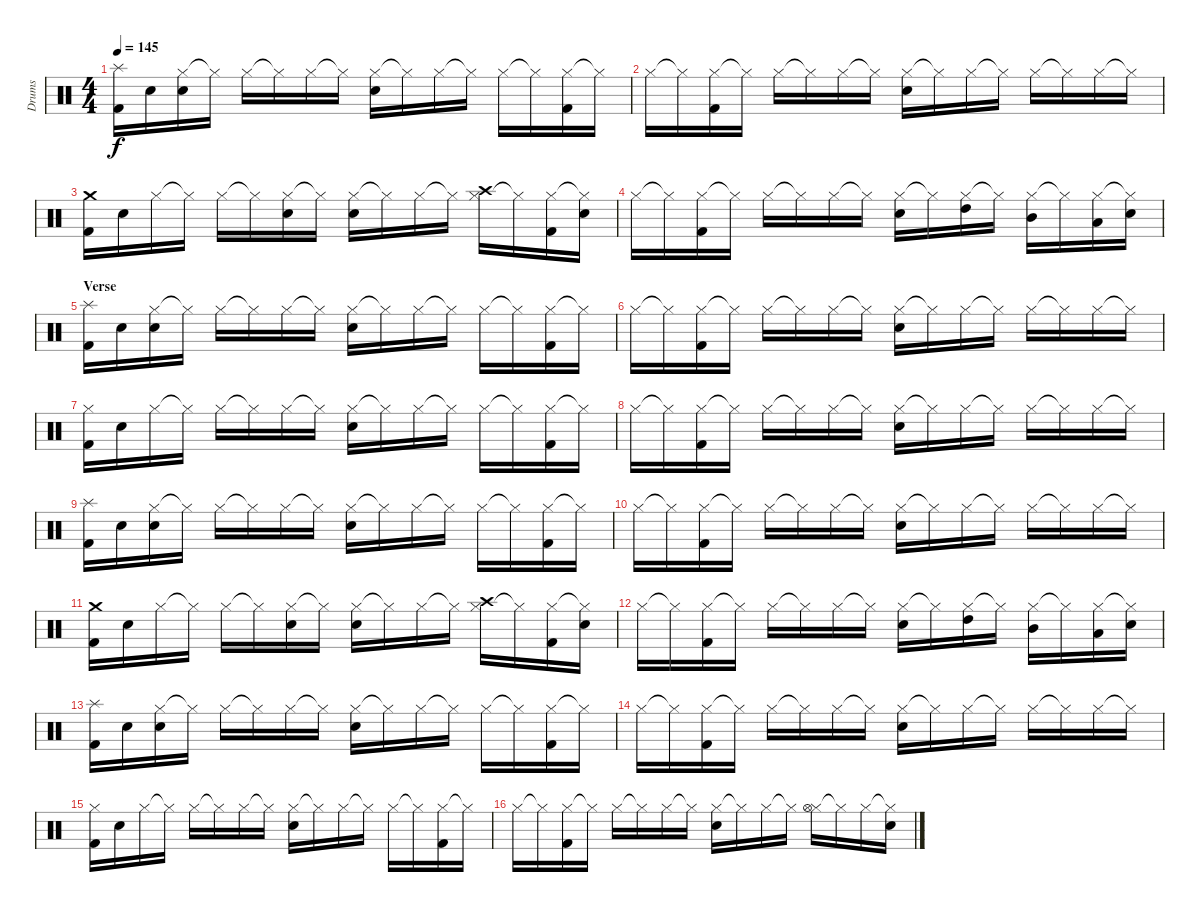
\track ("Drums" "Drums") {instrument percussion}
\staff {score}
\articulation defaults
\ts (4 4)
\tempo 145
\clef neutral
\ks c
("Splash (hit)" "Kick (hit) 2").16{dy f} "Snare (hit)".16 ("Hi-Hat (closed)" "Snare (hit)").16 "Hi-Hat (closed)"{t}.16 "Hi-Hat (closed)".16 "Hi-Hat (closed)"{t}.16 "Hi-Hat (closed)".16 "Hi-Hat (closed)"{t}.16 ("Hi-Hat (closed)" "Snare (hit) 2").16 "Hi-Hat (closed)"{t}.16 "Hi-Hat (closed)".16 "Hi-Hat (closed)"{t}.16 "Hi-Hat (closed)".16 "Hi-Hat (closed)"{t}.16 ("Hi-Hat (closed)" "Kick (hit) 2").16 "Hi-Hat (closed)"{t}.16 |
"Hi-Hat (closed)".16 "Hi-Hat (closed)"{t}.16 ("Hi-Hat (closed)" "Kick (hit) 2").16 "Hi-Hat (closed)"{t}.16 "Hi-Hat (closed)".16 "Hi-Hat (closed)"{t}.16 "Hi-Hat (closed)".16 "Hi-Hat (closed)"{t}.16 ("Hi-Hat (closed)" "Snare (hit) 2").16 "Hi-Hat (closed)"{t}.16 "Hi-Hat (closed)".16 "Hi-Hat (closed)"{t}.16 "Hi-Hat (closed)".16 "Hi-Hat (closed)"{t}.16 "Hi-Hat (closed)".16 "Hi-Hat (closed)"{t}.16 |
("Crash medium (hit)" "Kick (hit) 2").16 "Snare (hit)".16 "Hi-Hat (closed)".16 "Hi-Hat (closed)"{t}.16 "Hi-Hat (closed)".16 "Hi-Hat (closed)"{t}.16 ("Hi-Hat (closed)" "Snare (hit)").16 "Hi-Hat (closed)"{t}.16 ("Hi-Hat (closed)" "Snare (hit) 2").16 "Hi-Hat (closed)"{t}.16 "Hi-Hat (closed)".16 "Hi-Hat (closed)"{t}.16 ("Hi-Hat (closed)" "Crash high (hit)").16 "Hi-Hat (closed)"{t}.16 ("Hi-Hat (closed)" "Kick (hit) 2").16 ("Hi-Hat (closed)"{t} "Snare (hit)").16 |
"Hi-Hat (closed)".16 "Hi-Hat (closed)"{t}.16 ("Hi-Hat (closed)" "Kick (hit) 2").16 "Hi-Hat (closed)"{t}.16 "Hi-Hat (closed)".16 "Hi-Hat (closed)"{t}.16 "Hi-Hat (closed)".16 "Hi-Hat (closed)"{t}.16 ("Hi-Hat (closed)" "Snare (hit) 2").16 "Hi-Hat (closed)"{t}.16 ("Hi-Hat (closed)" "High Tom (hit)").16 "Hi-Hat (closed)"{t}.16 ("Hi-Hat (closed)" "Mid Tom (hit)").16 "Hi-Hat (closed)"{t}.16 ("Hi-Hat (closed)" "Low Tom (hit)").16 ("Hi-Hat (closed)"{t} "Snare (hit)").16 |
\section ("" "Verse")
("Splash (hit)" "Kick (hit) 2").16 "Snare (hit)".16 ("Hi-Hat (closed)" "Snare (hit)").16 "Hi-Hat (closed)"{t}.16 "Hi-Hat (closed)".16 "Hi-Hat (closed)"{t}.16 "Hi-Hat (closed)".16 "Hi-Hat (closed)"{t}.16 ("Hi-Hat (closed)" "Snare (hit) 2").16 "Hi-Hat (closed)"{t}.16 "Hi-Hat (closed)".16 "Hi-Hat (closed)"{t}.16 "Hi-Hat (closed)".16 "Hi-Hat (closed)"{t}.16 ("Hi-Hat (closed)" "Kick (hit) 2").16 "Hi-Hat (closed)"{t}.16 |
"Hi-Hat (closed)".16 "Hi-Hat (closed)"{t}.16 ("Hi-Hat (closed)" "Kick (hit) 2").16 "Hi-Hat (closed)"{t}.16 "Hi-Hat (closed)".16 "Hi-Hat (closed)"{t}.16 "Hi-Hat (closed)".16 "Hi-Hat (closed)"{t}.16 ("Hi-Hat (closed)" "Snare (hit) 2").16 "Hi-Hat (closed)"{t}.16 "Hi-Hat (closed)".16 "Hi-Hat (closed)"{t}.16 "Hi-Hat (closed)".16 "Hi-Hat (closed)"{t}.16 "Hi-Hat (closed)".16 "Hi-Hat (closed)"{t}.16 |
("Hi-Hat (closed)" "Kick (hit) 2").16 "Snare (hit)".16 "Hi-Hat (closed)".16 "Hi-Hat (closed)"{t}.16 "Hi-Hat (closed)".16 "Hi-Hat (closed)"{t}.16 "Hi-Hat (closed)".16 "Hi-Hat (closed)"{t}.16 ("Hi-Hat (closed)" "Snare (hit) 2").16 "Hi-Hat (closed)"{t}.16 "Hi-Hat (closed)".16 "Hi-Hat (closed)"{t}.16 "Hi-Hat (closed)".16 "Hi-Hat (closed)"{t}.16 ("Hi-Hat (closed)" "Kick (hit) 2").16 "Hi-Hat (closed)"{t}.16 |
"Hi-Hat (closed)".16 "Hi-Hat (closed)"{t}.16 ("Hi-Hat (closed)" "Kick (hit) 2").16 "Hi-Hat (closed)"{t}.16 "Hi-Hat (closed)".16 "Hi-Hat (closed)"{t}.16 "Hi-Hat (closed)".16 "Hi-Hat (closed)"{t}.16 ("Hi-Hat (closed)" "Snare (hit) 2").16 "Hi-Hat (closed)"{t}.16 "Hi-Hat (closed)".16 "Hi-Hat (closed)"{t}.16 "Hi-Hat (closed)".16 "Hi-Hat (closed)"{t}.16 "Hi-Hat (closed)".16 "Hi-Hat (closed)"{t}.16 |
("Splash (hit)" "Kick (hit) 2").16 "Snare (hit)".16 ("Hi-Hat (closed)" "Snare (hit)").16 "Hi-Hat (closed)"{t}.16 "Hi-Hat (closed)".16 "Hi-Hat (closed)"{t}.16 "Hi-Hat (closed)".16 "Hi-Hat (closed)"{t}.16 ("Hi-Hat (closed)" "Snare (hit) 2").16 "Hi-Hat (closed)"{t}.16 "Hi-Hat (closed)".16 "Hi-Hat (closed)"{t}.16 "Hi-Hat (closed)".16 "Hi-Hat (closed)"{t}.16 ("Hi-Hat (closed)" "Kick (hit) 2").16 "Hi-Hat (closed)"{t}.16 |
"Hi-Hat (closed)".16 "Hi-Hat (closed)"{t}.16 ("Hi-Hat (closed)" "Kick (hit) 2").16 "Hi-Hat (closed)"{t}.16 "Hi-Hat (closed)".16 "Hi-Hat (closed)"{t}.16 "Hi-Hat (closed)".16 "Hi-Hat (closed)"{t}.16 ("Hi-Hat (closed)" "Snare (hit) 2").16 "Hi-Hat (closed)"{t}.16 "Hi-Hat (closed)".16 "Hi-Hat (closed)"{t}.16 "Hi-Hat (closed)".16 "Hi-Hat (closed)"{t}.16 "Hi-Hat (closed)".16 "Hi-Hat (closed)"{t}.16 |
("Crash medium (hit)" "Kick (hit) 2").16 "Snare (hit)".16 "Hi-Hat (closed)".16 "Hi-Hat (closed)"{t}.16 "Hi-Hat (closed)".16 "Hi-Hat (closed)"{t}.16 ("Hi-Hat (closed)" "Snare (hit)").16 "Hi-Hat (closed)"{t}.16 ("Hi-Hat (closed)" "Snare (hit) 2").16 "Hi-Hat (closed)"{t}.16 "Hi-Hat (closed)".16 "Hi-Hat (closed)"{t}.16 ("Hi-Hat (closed)" "Crash high (hit)").16 "Hi-Hat (closed)"{t}.16 ("Hi-Hat (closed)" "Kick (hit) 2").16 ("Hi-Hat (closed)"{t} "Snare (hit)").16 |
"Hi-Hat (closed)".16 "Hi-Hat (closed)"{t}.16 ("Hi-Hat (closed)" "Kick (hit) 2").16 "Hi-Hat (closed)"{t}.16 "Hi-Hat (closed)".16 "Hi-Hat (closed)"{t}.16 "Hi-Hat (closed)".16 "Hi-Hat (closed)"{t}.16 ("Hi-Hat (closed)" "Snare (hit) 2").16 "Hi-Hat (closed)"{t}.16 ("Hi-Hat (closed)" "High Tom (hit)").16 "Hi-Hat (closed)"{t}.16 ("Hi-Hat (closed)" "Mid Tom (hit)").16 "Hi-Hat (closed)"{t}.16 ("Hi-Hat (closed)" "Low Tom (hit)").16 ("Hi-Hat (closed)"{t} "Snare (hit)").16 |
("Splash (hit)" "Kick (hit) 2").16 "Snare (hit)".16 ("Hi-Hat (closed)" "Snare (hit)").16 "Hi-Hat (closed)"{t}.16 "Hi-Hat (closed)".16 "Hi-Hat (closed)"{t}.16 "Hi-Hat (closed)".16 "Hi-Hat (closed)"{t}.16 ("Hi-Hat (closed)" "Snare (hit) 2").16 "Hi-Hat (closed)"{t}.16 "Hi-Hat (closed)".16 "Hi-Hat (closed)"{t}.16 "Hi-Hat (closed)".16 "Hi-Hat (closed)"{t}.16 ("Hi-Hat (closed)" "Kick (hit) 2").16 "Hi-Hat (closed)"{t}.16 |
"Hi-Hat (closed)".16 "Hi-Hat (closed)"{t}.16 ("Hi-Hat (closed)" "Kick (hit) 2").16 "Hi-Hat (closed)"{t}.16 "Hi-Hat (closed)".16 "Hi-Hat (closed)"{t}.16 "Hi-Hat (closed)".16 "Hi-Hat (closed)"{t}.16 ("Hi-Hat (closed)" "Snare (hit) 2").16 "Hi-Hat (closed)"{t}.16 "Hi-Hat (closed)".16 "Hi-Hat (closed)"{t}.16 "Hi-Hat (closed)".16 "Hi-Hat (closed)"{t}.16 "Hi-Hat (closed)".16 "Hi-Hat (closed)"{t}.16 |
("Hi-Hat (closed)" "Kick (hit) 2").16 "Snare (hit)".16 "Hi-Hat (closed)".16 "Hi-Hat (closed)"{t}.16 "Hi-Hat (closed)".16 "Hi-Hat (closed)"{t}.16 "Hi-Hat (closed)".16 "Hi-Hat (closed)"{t}.16 ("Hi-Hat (closed)" "Snare (hit) 2").16 "Hi-Hat (closed)"{t}.16 "Hi-Hat (closed)".16 "Hi-Hat (closed)"{t}.16 "Hi-Hat (closed)".16 "Hi-Hat (closed)"{t}.16 ("Hi-Hat (closed)" "Kick (hit) 2").16 "Hi-Hat (closed)"{t}.16 |
"Hi-Hat (closed)".16 "Hi-Hat (closed)"{t}.16 ("Hi-Hat (closed)" "Kick (hit) 2").16 "Hi-Hat (closed)"{t}.16 "Hi-Hat (closed)".16 "Hi-Hat (closed)"{t}.16 "Hi-Hat (closed)".16 "Hi-Hat (closed)"{t}.16 ("Hi-Hat (closed)" "Snare (hit) 2").16 "Hi-Hat (closed)"{t}.16 "Hi-Hat (closed)".16 "Hi-Hat (closed)"{t}.16 ("Hi-Hat (closed)" "Hi-Hat (open)").16 "Hi-Hat (closed)"{t}.16 "Hi-Hat (closed)".16 ("Hi-Hat (closed)"{t} "Snare (hit)").16
